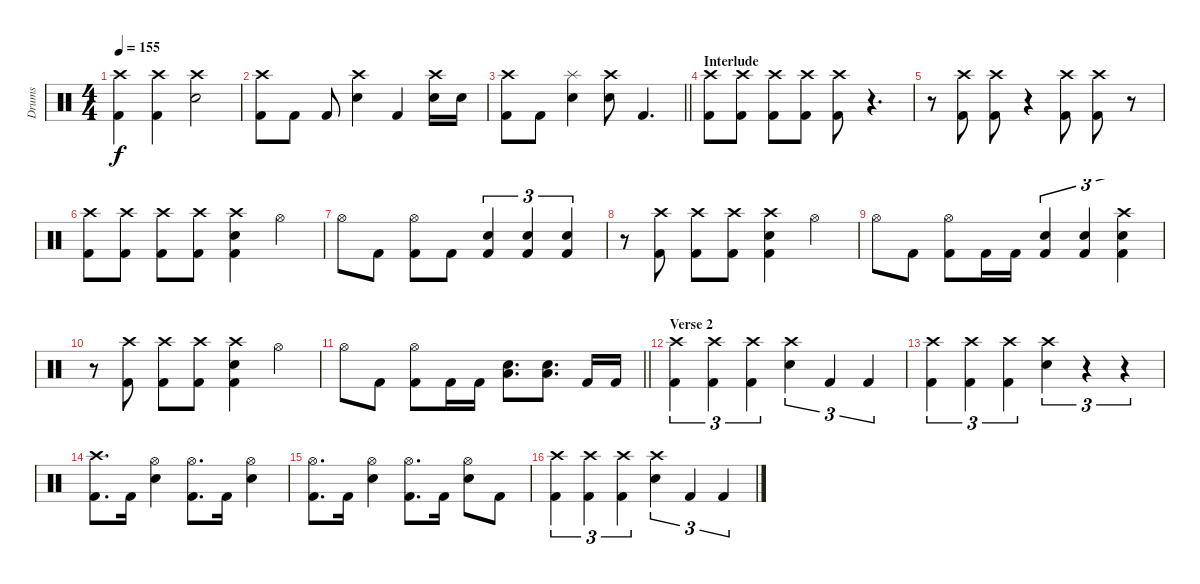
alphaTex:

\track ("Drums" "Drums") {instrument percussion}
\staff {score}
\articulation defaults
\ts (4 4)
\tempo 155
\clef neutral
\ks c
("Crash high (hit)" "Kick (hit) 2").4{dy f} ("Crash high (hit)" "Kick (hit) 2").4 ("Crash high (hit)" "Snare (hit) 2").2 |
("Crash high (hit)" "Kick (hit) 2").8 "Kick (hit) 2".8 "Kick (hit) 2".8 ("Crash high (hit)" "Snare (hit) 2").4 "Kick (hit) 2".4 ("Crash high (hit)" "Snare (hit) 2").16 "Snare (hit) 2".16 |
\barLineRight lightlight
("Crash high (hit)" "Kick (hit) 2").8 "Kick (hit) 2".8 ("Splash (hit)" "Snare (hit) 2").4 ("Crash high (hit)" "Snare (hit) 2").8 "Kick (hit) 2".4{d} |
\section ("" "Interlude")
("Crash high (hit)" "Kick (hit) 2").8 ("Crash high (hit)" "Kick (hit) 2").8 ("Crash high (hit)" "Kick (hit) 2").8 ("Crash high (hit)" "Kick (hit) 2").8 ("Crash high (hit)" "Kick (hit) 2").8 r.4{d} |
r.8 ("Crash high (hit)" "Kick (hit) 2").8 ("Crash high (hit)" "Kick (hit) 2").8 r.4 ("Crash high (hit)" "Kick (hit) 2").8 ("Crash high (hit)" "Kick (hit) 2").8 r.8 |
("Crash high (hit)" "Kick (hit) 2").8 ("Crash high (hit)" "Kick (hit) 2").8 ("Crash high (hit)" "Kick (hit) 2").8 ("Crash high (hit)" "Kick (hit) 2").8 ("Crash high (hit)" "Snare (hit) 2" "Kick (hit) 2").4 "Hi-Hat (open)".4 |
"Hi-Hat (open)".8 "Kick (hit) 2".8 ("Hi-Hat (open)" "Kick (hit) 2").8 "Kick (hit) 2".8 ("Snare (hit) 2" "Kick (hit) 2").4{tu (3 2)} ("Snare (hit) 2" "Kick (hit) 2").4{tu (3 2)} ("Snare (hit) 2" "Kick (hit) 2").4{tu (3 2)} |
r.8 ("Crash high (hit)" "Kick (hit) 2").8 ("Crash high (hit)" "Kick (hit) 2").8 ("Crash high (hit)" "Kick (hit) 2").8 ("Crash high (hit)" "Snare (hit) 2" "Kick (hit) 2").4 "Hi-Hat (open)".4 |
"Hi-Hat (open)".8 "Kick (hit) 2".8 ("Hi-Hat (open)" "Kick (hit) 2").8 "Kick (hit) 2".16 "Kick (hit) 2".16 ("Snare (hit) 2" "Kick (hit) 2").4{tu (3 2)} ("Snare (hit) 2" "Kick (hit) 2").4{tu (3 2)} ("Crash high (hit)" "Snare (hit) 2" "Kick (hit) 2").4{tu (3 2)} |
r.8 ("Crash high (hit)" "Kick (hit) 2").8 ("Crash high (hit)" "Kick (hit) 2").8 ("Crash high (hit)" "Kick (hit) 2").8 ("Crash high (hit)" "Snare (hit) 2" "Kick (hit) 2").4 "Hi-Hat (open)".4 |
\barLineRight lightlight "Hi-Hat (open)".8 "Kick (hit) 2".8
("Hi-Hat (open)" "Kick (hit) 2").8 "Kick (hit) 2".16 "Kick (hit) 2".16 ("Snare (hit) 2" "Low Floor Tom (hit)").8{d} ("Snare (hit) 2" "Low Floor Tom (hit)").8{d} "Kick (hit) 2".16 "Kick (hit) 2".16 |
\section ("" "Verse 2")
("Crash high (hit)" "Kick (hit) 2").4{tu (3 2)} ("Crash high (hit)" "Kick (hit) 2").4{tu (3 2)} ("Crash high (hit)" "Kick (hit) 2").4{tu (3 2)} ("Crash high (hit)" "Snare (hit) 2").4{tu (3 2)} "Kick (hit) 2".4{tu (3 2)} "Kick (hit) 2".4{tu (3 2)} |
("Crash high (hit)" "Kick (hit) 2").4{tu (3 2)} ("Crash high (hit)" "Kick (hit) 2").4{tu (3 2)} ("Crash high (hit)" "Kick (hit) 2").4{tu (3 2)} ("Crash high (hit)" "Snare (hit) 2").4{tu (3 2)} r.4{tu (3 2)} r.4{tu (3 2)} |
("Crash high (hit)" "Kick (hit) 2").8{d} "Kick (hit) 2".16 ("Hi-Hat (open)" "Snare (hit) 2").4 ("Hi-Hat (open)" "Kick (hit) 2").8{d} "Kick (hit) 2".16 ("Hi-Hat (open)" "Snare (hit) 2").4 |
("Hi-Hat (open)" "Kick (hit) 2").8{d} "Kick (hit) 2".16 ("Hi-Hat (open)" "Snare (hit) 2").4 ("Hi-Hat (open)" "Kick (hit) 2").8{d} "Kick (hit) 2".16 ("Hi-Hat (open)" "Snare (hit) 2").8 "Kick (hit) 2".8 |
("Crash high (hit)" "Kick (hit) 2").4{tu (3 2)} ("Crash high (hit)" "Kick (hit) 2").4{tu (3 2)} ("Crash high (hit)" "Kick (hit) 2").4{tu (3 2)} ("Crash high (hit)" "Snare (hit) 2").4{tu (3 2)} "Kick (hit) 2".4{tu (3 2)} "Kick (hit) 2".4{tu (3 2)}
